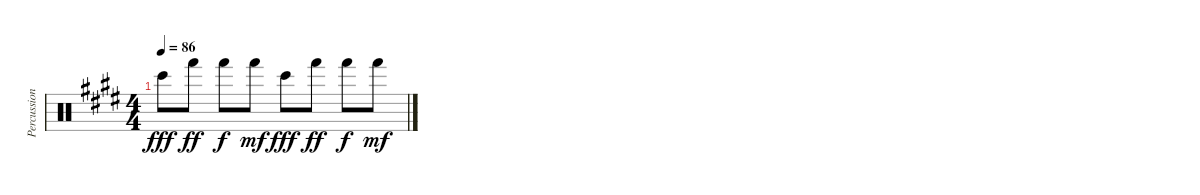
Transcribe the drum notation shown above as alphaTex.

\track ("Percussion" "Percussion") {instrument percussion}
\staff {score}
\articulation defaults
\ts (4 4)
\tempo 86
\clef neutral
\ks e "Bongo High (hit)".8{dy fff} "Hand (hit)".8{dy ff} "Hand (hit)".8{dy f} "Hand (hit)".8{dy mf} "Bongo High (hit)".8{dy fff} "Hand (hit)".8{dy ff} "Hand (hit)".8{dy f} "Hand (hit)".8{dy mf}
